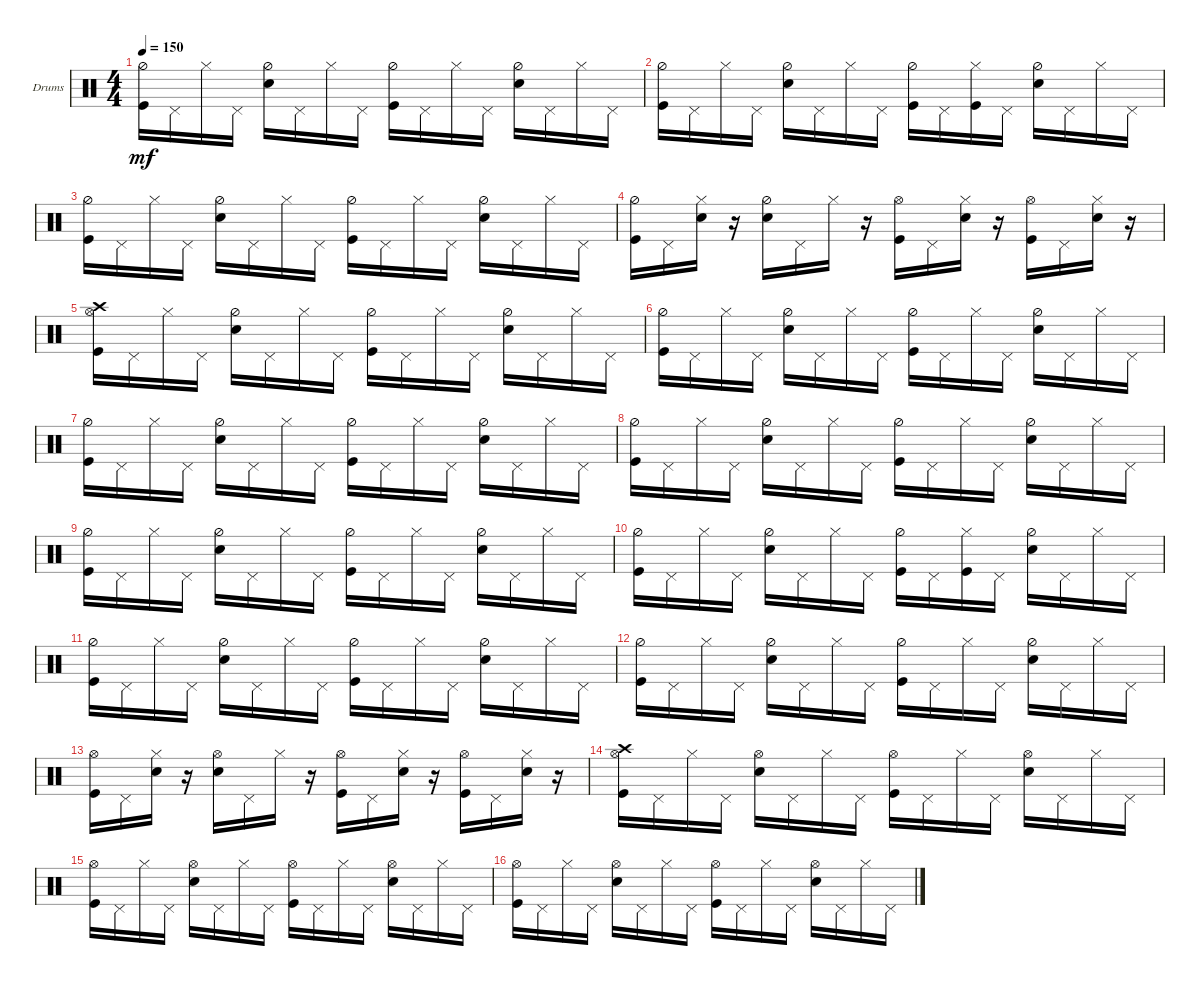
\bracketExtendMode groupsimilarinstruments
\firstSystemTrackNameOrientation horizontal
\otherSystemsTrackNameOrientation horizontal
\track ("Drumkit" "Drums") {solo instrument percussion}
\staff {score}
\articulation defaults
\ts (4 4)
\tempo 150
\clef neutral
\ks c
("Kick (hit)" "Hi-Hat (half)").16{dy mf} "Pedal Hi-Hat (hit)".16 "Hi-Hat (closed)".16 "Pedal Hi-Hat (hit)".16 ("Snare (hit) 2" "Hi-Hat (half)").16 "Pedal Hi-Hat (hit)".16 "Hi-Hat (closed)".16 "Pedal Hi-Hat (hit)".16 ("Kick (hit)" "Hi-Hat (half)").16 "Pedal Hi-Hat (hit)".16 "Hi-Hat (closed)".16 "Pedal Hi-Hat (hit)".16 ("Snare (hit) 2" "Hi-Hat (half)").16 "Pedal Hi-Hat (hit)".16 "Hi-Hat (closed)".16 "Pedal Hi-Hat (hit)".16 |
("Kick (hit)" "Hi-Hat (half)").16 "Pedal Hi-Hat (hit)".16 "Hi-Hat (closed)".16 "Pedal Hi-Hat (hit)".16 ("Snare (hit) 2" "Hi-Hat (half)").16 "Pedal Hi-Hat (hit)".16 "Hi-Hat (closed)".16 "Pedal Hi-Hat (hit)".16 ("Kick (hit)" "Hi-Hat (half)").16 "Pedal Hi-Hat (hit)".16 ("Hi-Hat (closed)" "Kick (hit)").16 "Pedal Hi-Hat (hit)".16 ("Snare (hit) 2" "Hi-Hat (half)").16 "Pedal Hi-Hat (hit)".16 "Hi-Hat (closed)".16 "Pedal Hi-Hat (hit)".16 |
("Kick (hit)" "Hi-Hat (half)").16 "Pedal Hi-Hat (hit)".16 "Hi-Hat (closed)".16 "Pedal Hi-Hat (hit)".16 ("Snare (hit) 2" "Hi-Hat (half)").16 "Pedal Hi-Hat (hit)".16 "Hi-Hat (closed)".16 "Pedal Hi-Hat (hit)".16 ("Kick (hit)" "Hi-Hat (half)").16 "Pedal Hi-Hat (hit)".16 "Hi-Hat (closed)".16 "Pedal Hi-Hat (hit)".16 ("Snare (hit) 2" "Hi-Hat (half)").16 "Pedal Hi-Hat (hit)".16 "Hi-Hat (closed)".16 "Pedal Hi-Hat (hit)".16 |
("Kick (hit)" "Hi-Hat (half)").16 "Pedal Hi-Hat (hit)".16 ("Hi-Hat (closed)" "Snare (hit) 2").16 r.16 ("Snare (hit) 2" "Hi-Hat (half)").16 "Pedal Hi-Hat (hit)".16 "Hi-Hat (closed)".16 r.16 ("Kick (hit)" "Hi-Hat (open)").16 "Pedal Hi-Hat (hit)".16 ("Hi-Hat (closed)" "Snare (hit) 2").16 r.16 ("Hi-Hat (open)" "Kick (hit)").16 "Pedal Hi-Hat (hit)".16 ("Hi-Hat (closed)" "Snare (hit) 2").16 r.16 |
("Kick (hit)" "Crash high (hit)" "Hi-Hat (open)").16 "Pedal Hi-Hat (hit)".16 "Hi-Hat (closed)".16 "Pedal Hi-Hat (hit)".16 ("Snare (hit) 2" "Hi-Hat (half)").16 "Pedal Hi-Hat (hit)".16 "Hi-Hat (closed)".16 "Pedal Hi-Hat (hit)".16 ("Kick (hit)" "Hi-Hat (half)").16 "Pedal Hi-Hat (hit)".16 "Hi-Hat (closed)".16 "Pedal Hi-Hat (hit)".16 ("Snare (hit) 2" "Hi-Hat (half)").16 "Pedal Hi-Hat (hit)".16 "Hi-Hat (closed)".16 "Pedal Hi-Hat (hit)".16 |
("Kick (hit)" "Hi-Hat (half)").16 "Pedal Hi-Hat (hit)".16 "Hi-Hat (closed)".16 "Pedal Hi-Hat (hit)".16 ("Snare (hit) 2" "Hi-Hat (half)").16 "Pedal Hi-Hat (hit)".16 "Hi-Hat (closed)".16 "Pedal Hi-Hat (hit)".16 ("Kick (hit)" "Hi-Hat (half)").16 "Pedal Hi-Hat (hit)".16 "Hi-Hat (closed)".16 "Pedal Hi-Hat (hit)".16 ("Snare (hit) 2" "Hi-Hat (half)").16 "Pedal Hi-Hat (hit)".16 "Hi-Hat (closed)".16 "Pedal Hi-Hat (hit)".16 |
("Kick (hit)" "Hi-Hat (half)").16 "Pedal Hi-Hat (hit)".16 "Hi-Hat (closed)".16 "Pedal Hi-Hat (hit)".16 ("Snare (hit) 2" "Hi-Hat (half)").16 "Pedal Hi-Hat (hit)".16 "Hi-Hat (closed)".16 "Pedal Hi-Hat (hit)".16 ("Kick (hit)" "Hi-Hat (half)").16 "Pedal Hi-Hat (hit)".16 "Hi-Hat (closed)".16 "Pedal Hi-Hat (hit)".16 ("Snare (hit) 2" "Hi-Hat (half)").16 "Pedal Hi-Hat (hit)".16 "Hi-Hat (closed)".16 "Pedal Hi-Hat (hit)".16 |
("Kick (hit)" "Hi-Hat (half)").16 "Pedal Hi-Hat (hit)".16 "Hi-Hat (closed)".16 "Pedal Hi-Hat (hit)".16 ("Snare (hit) 2" "Hi-Hat (half)").16 "Pedal Hi-Hat (hit)".16 "Hi-Hat (closed)".16 "Pedal Hi-Hat (hit)".16 ("Kick (hit)" "Hi-Hat (half)").16 "Pedal Hi-Hat (hit)".16 "Hi-Hat (closed)".16 "Pedal Hi-Hat (hit)".16 ("Snare (hit) 2" "Hi-Hat (half)").16 "Pedal Hi-Hat (hit)".16 "Hi-Hat (closed)".16 "Pedal Hi-Hat (hit)".16 |
("Kick (hit)" "Hi-Hat (half)").16 "Pedal Hi-Hat (hit)".16 "Hi-Hat (closed)".16 "Pedal Hi-Hat (hit)".16 ("Snare (hit) 2" "Hi-Hat (half)").16 "Pedal Hi-Hat (hit)".16 "Hi-Hat (closed)".16 "Pedal Hi-Hat (hit)".16 ("Kick (hit)" "Hi-Hat (half)").16 "Pedal Hi-Hat (hit)".16 "Hi-Hat (closed)".16 "Pedal Hi-Hat (hit)".16 ("Snare (hit) 2" "Hi-Hat (half)").16 "Pedal Hi-Hat (hit)".16 "Hi-Hat (closed)".16 "Pedal Hi-Hat (hit)".16 |
("Kick (hit)" "Hi-Hat (half)").16 "Pedal Hi-Hat (hit)".16 "Hi-Hat (closed)".16 "Pedal Hi-Hat (hit)".16 ("Snare (hit) 2" "Hi-Hat (half)").16 "Pedal Hi-Hat (hit)".16 "Hi-Hat (closed)".16 "Pedal Hi-Hat (hit)".16 ("Kick (hit)" "Hi-Hat (half)").16 "Pedal Hi-Hat (hit)".16 ("Hi-Hat (closed)" "Kick (hit)").16 "Pedal Hi-Hat (hit)".16 ("Snare (hit) 2" "Hi-Hat (half)").16 "Pedal Hi-Hat (hit)".16 "Hi-Hat (closed)".16 "Pedal Hi-Hat (hit)".16 |
("Kick (hit)" "Hi-Hat (half)").16 "Pedal Hi-Hat (hit)".16 "Hi-Hat (closed)".16 "Pedal Hi-Hat (hit)".16 ("Snare (hit) 2" "Hi-Hat (half)").16 "Pedal Hi-Hat (hit)".16 "Hi-Hat (closed)".16 "Pedal Hi-Hat (hit)".16 ("Kick (hit)" "Hi-Hat (half)").16 "Pedal Hi-Hat (hit)".16 "Hi-Hat (closed)".16 "Pedal Hi-Hat (hit)".16 ("Snare (hit) 2" "Hi-Hat (half)").16 "Pedal Hi-Hat (hit)".16 "Hi-Hat (closed)".16 "Pedal Hi-Hat (hit)".16 |
("Kick (hit)" "Hi-Hat (half)").16 "Pedal Hi-Hat (hit)".16 "Hi-Hat (closed)".16 "Pedal Hi-Hat (hit)".16 ("Snare (hit) 2" "Hi-Hat (half)").16 "Pedal Hi-Hat (hit)".16 "Hi-Hat (closed)".16 "Pedal Hi-Hat (hit)".16 ("Kick (hit)" "Hi-Hat (half)").16 "Pedal Hi-Hat (hit)".16 "Hi-Hat (closed)".16 "Pedal Hi-Hat (hit)".16 ("Snare (hit) 2" "Hi-Hat (half)").16 "Pedal Hi-Hat (hit)".16 "Hi-Hat (closed)".16 "Pedal Hi-Hat (hit)".16 |
("Kick (hit)" "Hi-Hat (open)").16 "Pedal Hi-Hat (hit)".16 ("Hi-Hat (closed)" "Snare (hit) 2").16 r.16 ("Snare (hit) 2" "Hi-Hat (open)").16 "Pedal Hi-Hat (hit)".16 "Hi-Hat (closed)".16 r.16 ("Kick (hit)" "Hi-Hat (open)").16 "Pedal Hi-Hat (hit)".16 ("Hi-Hat (closed)" "Snare (hit) 2").16 r.16 ("Hi-Hat (open)" "Kick (hit)").16 "Pedal Hi-Hat (hit)".16 ("Hi-Hat (closed)" "Snare (hit) 2").16 r.16 |
("Kick (hit)" "Crash high (hit)" "Hi-Hat (open)").16 "Pedal Hi-Hat (hit)".16 "Hi-Hat (closed)".16 "Pedal Hi-Hat (hit)".16 ("Snare (hit) 2" "Hi-Hat (open)").16 "Pedal Hi-Hat (hit)".16 "Hi-Hat (closed)".16 "Pedal Hi-Hat (hit)".16 ("Kick (hit)" "Hi-Hat (open)").16 "Pedal Hi-Hat (hit)".16 "Hi-Hat (closed)".16 "Pedal Hi-Hat (hit)".16 ("Snare (hit) 2" "Hi-Hat (open)").16 "Pedal Hi-Hat (hit)".16 "Hi-Hat (closed)".16 "Pedal Hi-Hat (hit)".16 |
("Kick (hit)" "Hi-Hat (open)").16 "Pedal Hi-Hat (hit)".16 "Hi-Hat (closed)".16 "Pedal Hi-Hat (hit)".16 ("Snare (hit) 2" "Hi-Hat (open)").16 "Pedal Hi-Hat (hit)".16 "Hi-Hat (closed)".16 "Pedal Hi-Hat (hit)".16 ("Kick (hit)" "Hi-Hat (open)").16 "Pedal Hi-Hat (hit)".16 "Hi-Hat (closed)".16 "Pedal Hi-Hat (hit)".16 ("Snare (hit) 2" "Hi-Hat (open)").16 "Pedal Hi-Hat (hit)".16 "Hi-Hat (closed)".16 "Pedal Hi-Hat (hit)".16 |
("Kick (hit)" "Hi-Hat (open)").16 "Pedal Hi-Hat (hit)".16 "Hi-Hat (closed)".16 "Pedal Hi-Hat (hit)".16 ("Snare (hit) 2" "Hi-Hat (open)").16 "Pedal Hi-Hat (hit)".16 "Hi-Hat (closed)".16 "Pedal Hi-Hat (hit)".16 ("Kick (hit)" "Hi-Hat (open)").16 "Pedal Hi-Hat (hit)".16 "Hi-Hat (closed)".16 "Pedal Hi-Hat (hit)".16 ("Snare (hit) 2" "Hi-Hat (open)").16 "Pedal Hi-Hat (hit)".16 "Hi-Hat (closed)".16 "Pedal Hi-Hat (hit)".16
